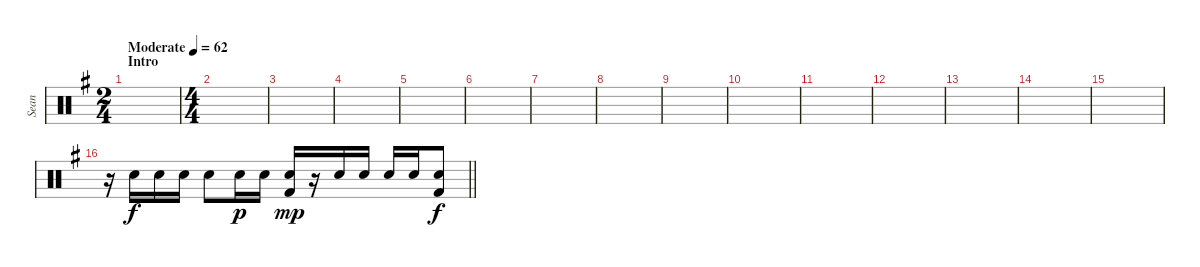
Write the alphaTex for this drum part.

\track ("Sean" "Sean") {instrument percussion}
\staff {score}
\articulation defaults
\ts (2 4)
\section ("" "Intro")
\tempo (62 "Moderate")
\clef neutral
\ks g
|
\ts (4 4)
|
|
|
|
\ks eminor
|
|
|
|
|
|
|
|
|
|
\barLineRight lightlight
r.16 "Electric Snare (hit)".16 "Electric Snare (hit)".16 "Electric Snare (hit)".16 "Electric Snare (hit)".8{dy f} "Electric Snare (hit)".16{dy p} "Electric Snare (hit)".16 ("Electric Snare (hit)" "Kick (hit) 2").16{dy mp} r.16 "Electric Snare (hit)".16 "Electric Snare (hit)".16 "Electric Snare (hit)".16 "Electric Snare (hit)".16 ("Electric Snare (hit)" "Kick (hit) 2").8{dy f}
